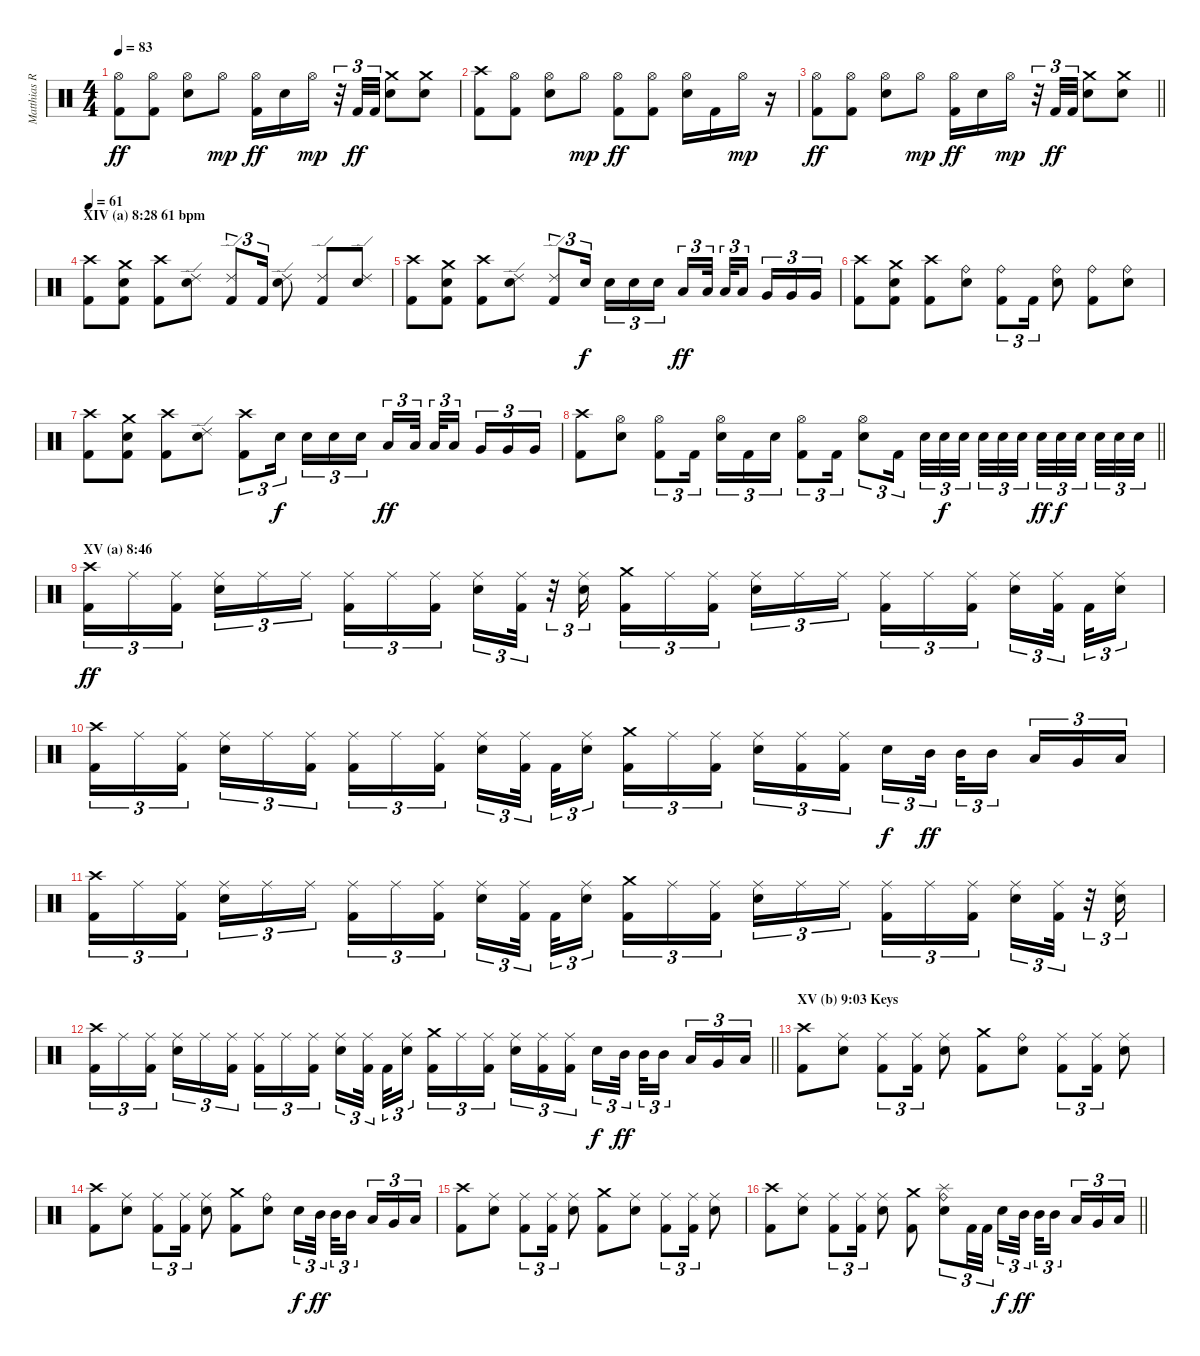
\track ("Matthias R." "Matthias R") {instrument percussion}
\staff {score}
\articulation defaults
\ts (4 4)
\tempo 83
\clef neutral
\ks c
("Hi-Hat (open)" "Kick (hit) 2").8{dy ff} ("Hi-Hat (open)" "Kick (hit) 2").8 ("Hi-Hat (open)" "Electric Snare (hit)").8 "Hi-Hat (open)".8{dy mp} ("Hi-Hat (open)" "Kick (hit) 2").16{dy ff} "Electric Snare (hit)".16 "Hi-Hat (open)".16{dy mp} r.32{tu (3 2)} "Kick (hit) 2".32{tu (3 2) dy ff} "Kick (hit) 2".32{tu (3 2)} ("Crash medium (hit)" "Electric Snare (hit)").8 ("Crash medium (hit)" "Electric Snare (hit)").8 |
("Crash high (hit)" "Kick (hit) 2").8 ("Hi-Hat (open)" "Kick (hit) 2").8 ("Hi-Hat (open)" "Electric Snare (hit)").8 "Hi-Hat (open)".8{dy mp} ("Hi-Hat (open)" "Kick (hit) 2").8{dy ff} ("Hi-Hat (open)" "Kick (hit) 2").8 ("Hi-Hat (open)" "Electric Snare (hit)").16 "Kick (hit) 2".16 "Hi-Hat (open)".16{dy mp} r.16 |
\barLineRight lightlight
("Hi-Hat (open)" "Kick (hit) 2").8{dy ff} ("Hi-Hat (open)" "Kick (hit) 2").8 ("Hi-Hat (open)" "Electric Snare (hit)").8 "Hi-Hat (open)".8{dy mp} ("Hi-Hat (open)" "Kick (hit) 2").16{dy ff} "Electric Snare (hit)".16 "Hi-Hat (open)".16{dy mp} r.32{tu (3 2)} "Kick (hit) 2".32{tu (3 2) dy ff} "Kick (hit) 2".32{tu (3 2)} ("Crash medium (hit)" "Electric Snare (hit)").8 ("Crash medium (hit)" "Electric Snare (hit)").8 |
\section ("" "XIV (a) 8:28 61 bpm")
\tempo 61
("Crash high (hit)" "Kick (hit) 2").8 ("Crash medium (hit)" "Electric Snare (hit)" "Kick (hit) 2").8 ("Crash high (hit)" "Kick (hit) 2").8 ("Ride (edge) 2" "Electric Snare (hit)").8 ("Ride (edge) 2" "Kick (hit) 2").8{tu (3 2)} "Kick (hit) 2".16{tu (3 2)} ("Ride (edge) 2" "Electric Snare (hit)").8 ("Ride (edge) 2" "Kick (hit) 2").8 ("Ride (edge) 2" "Electric Snare (hit)").8 |
("Crash high (hit)" "Kick (hit) 2").8 ("Crash medium (hit)" "Electric Snare (hit)" "Kick (hit) 2").8 ("Crash high (hit)" "Kick (hit) 2").8 ("Ride (edge) 2" "Electric Snare (hit)").8 ("Ride (edge) 2" "Kick (hit) 2").8{tu (3 2)} "Electric Snare (hit)".16{tu (3 2) dy f beam splitsecondary} "Electric Snare (hit)".16{tu (3 2)} "Electric Snare (hit)".16{tu (3 2)} "Electric Snare (hit)".16{tu (3 2)} "Low Tom (hit)".16{tu (3 2) dy ff} "Low Tom (hit)".32{tu (3 2) beam splitsecondary} "Low Tom (hit)".32{tu (3 2)} "Low Tom (hit)".16{tu (3 2) beam splitsecondary} "Very Low Tom (hit)".16{tu (3 2)} "Very Low Tom (hit)".16{tu (3 2)} "Very Low Tom (hit)".16{tu (3 2)} |
("Crash high (hit)" "Kick (hit) 2").8 ("Crash medium (hit)" "Electric Snare (hit)" "Kick (hit) 2").8 ("Crash high (hit)" "Kick (hit) 2").8 ("Ride (bell)" "Electric Snare (hit)").8 ("Ride (bell)" "Kick (hit) 2").8{tu (3 2)} "Kick (hit) 2".16{tu (3 2)} ("Ride (bell)" "Electric Snare (hit)").8 ("Ride (bell)" "Kick (hit) 2").8 ("Ride (bell)" "Electric Snare (hit)").8 |
("Crash high (hit)" "Kick (hit) 2").8 ("Crash medium (hit)" "Electric Snare (hit)" "Kick (hit) 2").8 ("Crash high (hit)" "Kick (hit) 2").8 ("Ride (edge) 2" "Electric Snare (hit)").8 ("Crash high (hit)" "Kick (hit) 2").8{tu (3 2)} "Electric Snare (hit)".16{tu (3 2) dy f beam splitsecondary} "Electric Snare (hit)".16{tu (3 2)} "Electric Snare (hit)".16{tu (3 2)} "Electric Snare (hit)".16{tu (3 2)} "Low Tom (hit)".16{tu (3 2) dy ff} "Low Tom (hit)".32{tu (3 2) beam splitsecondary} "Low Tom (hit)".32{tu (3 2)} "Low Tom (hit)".16{tu (3 2) beam splitsecondary} "Very Low Tom (hit)".16{tu (3 2)} "Very Low Tom (hit)".16{tu (3 2)} "Very Low Tom (hit)".16{tu (3 2)} |
\barLineRight lightlight
("Crash high (hit)" "Kick (hit) 2").8 ("Hi-Hat (open)" "Electric Snare (hit)").8 ("Hi-Hat (open)" "Kick (hit) 2").8{tu (3 2)} "Kick (hit) 2".16{tu (3 2) beam splitsecondary} ("Hi-Hat (open)" "Electric Snare (hit)").16{tu (3 2)} "Kick (hit) 2".16{tu (3 2)} "Electric Snare (hit)".16{tu (3 2)} ("Hi-Hat (open)" "Kick (hit) 2").8{tu (3 2)} "Kick (hit) 2".16{tu (3 2)} ("Hi-Hat (open)" "Electric Snare (hit)").8{tu (3 2)} "Kick (hit) 2".16{tu (3 2)} "Electric Snare (hit)".32{tu (3 2)} "Electric Snare (hit)".32{tu (3 2) dy f} "Electric Snare (hit)".32{tu (3 2) beam splitsecondary} "Electric Snare (hit)".32{tu (3 2)} "Electric Snare (hit)".32{tu (3 2)} "Electric Snare (hit)".32{tu (3 2) beam splitsecondary} "Electric Snare (hit)".32{tu (3 2) dy ff} "Electric Snare (hit)".32{tu (3 2) dy f} "Electric Snare (hit)".32{tu (3 2) beam splitsecondary} "Electric Snare (hit)".32{tu (3 2)} "Electric Snare (hit)".32{tu (3 2)} "Electric Snare (hit)".32{tu (3 2)} |
\section ("" "XV (a) 8:46")
("Crash high (hit)" "Kick (hit) 2").16{tu (3 2) dy ff} "Ride (middle)".16{tu (3 2)} ("Ride (middle)" "Kick (hit) 2").16{tu (3 2) beam splitsecondary} ("Ride (middle)" "Electric Snare (hit)").16{tu (3 2)} "Ride (middle)".16{tu (3 2)} "Ride (middle)".16{tu (3 2)} ("Ride (middle)" "Kick (hit) 2").16{tu (3 2)} "Ride (middle)".16{tu (3 2)} ("Ride (middle)" "Kick (hit) 2").16{tu (3 2) beam splitsecondary} ("Ride (middle)" "Electric Snare (hit)").16{tu (3 2)} ("Ride (middle)" "Kick (hit) 2").32{tu (3 2)} r.32{tu (3 2)} ("Ride (middle)" "Electric Snare (hit)").16{tu (3 2)} ("Crash medium (hit)" "Kick (hit) 2").16{tu (3 2)} "Ride (middle)".16{tu (3 2)} ("Ride (middle)" "Kick (hit) 2").16{tu (3 2) beam splitsecondary} ("Ride (middle)" "Electric Snare (hit)").16{tu (3 2)} "Ride (middle)".16{tu (3 2)} "Ride (middle)".16{tu (3 2)} ("Ride (middle)" "Kick (hit) 2").16{tu (3 2)} "Ride (middle)".16{tu (3 2)} ("Ride (middle)" "Kick (hit) 2").16{tu (3 2) beam splitsecondary} ("Ride (middle)" "Electric Snare (hit)").16{tu (3 2)} ("Ride (middle)" "Kick (hit) 2").32{tu (3 2) beam splitsecondary} "Kick (hit) 2".32{tu (3 2)} ("Ride (middle)" "Electric Snare (hit)").16{tu (3 2)} |
("Crash high (hit)" "Kick (hit) 2").16{tu (3 2)} "Ride (middle)".16{tu (3 2)} ("Ride (middle)" "Kick (hit) 2").16{tu (3 2) beam splitsecondary} ("Ride (middle)" "Electric Snare (hit)").16{tu (3 2)} "Ride (middle)".16{tu (3 2)} ("Ride (middle)" "Kick (hit) 2").16{tu (3 2)} ("Ride (middle)" "Kick (hit) 2").16{tu (3 2)} "Ride (middle)".16{tu (3 2)} ("Ride (middle)" "Kick (hit) 2").16{tu (3 2) beam splitsecondary} ("Ride (middle)" "Electric Snare (hit)").16{tu (3 2)} ("Ride (middle)" "Kick (hit) 2").32{tu (3 2) beam splitsecondary} "Kick (hit) 2".32{tu (3 2)} ("Ride (middle)" "Electric Snare (hit)").16{tu (3 2)} ("Crash medium (hit)" "Kick (hit) 2").16{tu (3 2)} "Ride (middle)".16{tu (3 2)} ("Ride (middle)" "Kick (hit) 2").16{tu (3 2) beam splitsecondary} ("Ride (middle)" "Electric Snare (hit)").16{tu (3 2)} ("Ride (middle)" "Kick (hit) 2").16{tu (3 2)} ("Ride (middle)" "Kick (hit) 2").16{tu (3 2)} "Electric Snare (hit)".16{tu (3 2) dy f} "Mid Tom (hit)".32{tu (3 2) dy ff beam splitsecondary} "Mid Tom (hit)".32{tu (3 2)} "Mid Tom (hit)".16{tu (3 2) beam splitsecondary} "Low Tom (hit)".16{tu (3 2)} "Very Low Tom (hit)".16{tu (3 2)} "Low Tom (hit)".16{tu (3 2)} |
("Crash high (hit)" "Kick (hit) 2").16{tu (3 2)} "Ride (middle)".16{tu (3 2)} ("Ride (middle)" "Kick (hit) 2").16{tu (3 2) beam splitsecondary} ("Ride (middle)" "Electric Snare (hit)").16{tu (3 2)} "Ride (middle)".16{tu (3 2)} "Ride (middle)".16{tu (3 2)} ("Ride (middle)" "Kick (hit) 2").16{tu (3 2)} "Ride (middle)".16{tu (3 2)} ("Ride (middle)" "Kick (hit) 2").16{tu (3 2) beam splitsecondary} ("Ride (middle)" "Electric Snare (hit)").16{tu (3 2)} ("Ride (middle)" "Kick (hit) 2").32{tu (3 2) beam splitsecondary} "Kick (hit) 2".32{tu (3 2)} ("Ride (middle)" "Electric Snare (hit)").16{tu (3 2)} ("Crash medium (hit)" "Kick (hit) 2").16{tu (3 2)} "Ride (middle)".16{tu (3 2)} ("Ride (middle)" "Kick (hit) 2").16{tu (3 2) beam splitsecondary} ("Ride (middle)" "Electric Snare (hit)").16{tu (3 2)} "Ride (middle)".16{tu (3 2)} "Ride (middle)".16{tu (3 2)} ("Ride (middle)" "Kick (hit) 2").16{tu (3 2)} "Ride (middle)".16{tu (3 2)} ("Ride (middle)" "Kick (hit) 2").16{tu (3 2) beam splitsecondary} ("Ride (middle)" "Electric Snare (hit)").16{tu (3 2)} ("Ride (middle)" "Kick (hit) 2").32{tu (3 2)} r.32{tu (3 2)} ("Ride (middle)" "Electric Snare (hit)").16{tu (3 2)} |
\barLineRight lightlight
("Crash high (hit)" "Kick (hit) 2").16{tu (3 2)} "Ride (middle)".16{tu (3 2)} ("Ride (middle)" "Kick (hit) 2").16{tu (3 2) beam splitsecondary} ("Ride (middle)" "Electric Snare (hit)").16{tu (3 2)} "Ride (middle)".16{tu (3 2)} ("Ride (middle)" "Kick (hit) 2").16{tu (3 2)} ("Ride (middle)" "Kick (hit) 2").16{tu (3 2)} "Ride (middle)".16{tu (3 2)} ("Ride (middle)" "Kick (hit) 2").16{tu (3 2) beam splitsecondary} ("Ride (middle)" "Electric Snare (hit)").16{tu (3 2)} ("Ride (middle)" "Kick (hit) 2").32{tu (3 2) beam splitsecondary} "Kick (hit) 2".32{tu (3 2)} ("Ride (middle)" "Electric Snare (hit)").16{tu (3 2)} ("Crash medium (hit)" "Kick (hit) 2").16{tu (3 2)} "Ride (middle)".16{tu (3 2)} ("Ride (middle)" "Kick (hit) 2").16{tu (3 2) beam splitsecondary} ("Ride (middle)" "Electric Snare (hit)").16{tu (3 2)} ("Ride (middle)" "Kick (hit) 2").16{tu (3 2)} ("Ride (middle)" "Kick (hit) 2").16{tu (3 2)} "Electric Snare (hit)".16{tu (3 2) dy f} "Mid Tom (hit)".32{tu (3 2) dy ff beam splitsecondary} "Mid Tom (hit)".32{tu (3 2)} "Mid Tom (hit)".16{tu (3 2) beam splitsecondary} "Low Tom (hit)".16{tu (3 2)} "Very Low Tom (hit)".16{tu (3 2)} "Low Tom (hit)".16{tu (3 2)} |
\section ("" "XV (b) 9:03 Keys")
("Crash high (hit)" "Kick (hit) 2").8 ("Ride (middle)" "Electric Snare (hit)").8 ("Ride (middle)" "Kick (hit) 2").8{tu (3 2)} ("Ride (middle)" "Kick (hit) 2").16{tu (3 2)} ("Ride (middle)" "Electric Snare (hit)").8 ("Crash medium (hit)" "Kick (hit) 2").8 ("Ride (bell)" "Electric Snare (hit)").8 ("Ride (middle)" "Kick (hit) 2").8{tu (3 2)} ("Ride (middle)" "Kick (hit) 2").16{tu (3 2)} ("Ride (middle)" "Electric Snare (hit)").8 |
("Crash high (hit)" "Kick (hit) 2").8 ("Ride (middle)" "Electric Snare (hit)").8 ("Ride (middle)" "Kick (hit) 2").8{tu (3 2)} ("Ride (middle)" "Kick (hit) 2").16{tu (3 2)} ("Ride (middle)" "Electric Snare (hit)").8 ("Crash medium (hit)" "Kick (hit) 2").8 ("Ride (bell)" "Electric Snare (hit)").8 "Electric Snare (hit)".16{tu (3 2) dy f} "Mid Tom (hit)".32{tu (3 2) dy ff beam splitsecondary} "Mid Tom (hit)".32{tu (3 2)} "Mid Tom (hit)".16{tu (3 2) beam splitsecondary} "Low Tom (hit)".16{tu (3 2)} "Very Low Tom (hit)".16{tu (3 2)} "Low Tom (hit)".16{tu (3 2)} |
("Crash high (hit)" "Kick (hit) 2").8 ("Ride (middle)" "Electric Snare (hit)").8 ("Ride (middle)" "Kick (hit) 2").8{tu (3 2)} ("Ride (middle)" "Kick (hit) 2").16{tu (3 2)} ("Ride (middle)" "Electric Snare (hit)").8 ("Crash medium (hit)" "Kick (hit) 2").8 ("Ride (middle)" "Electric Snare (hit)").8 ("Ride (middle)" "Kick (hit) 2").8{tu (3 2)} ("Ride (middle)" "Kick (hit) 2").16{tu (3 2)} ("Ride (middle)" "Electric Snare (hit)").8 |
\barLineRight lightlight
("Crash high (hit)" "Kick (hit) 2").8 ("Ride (middle)" "Electric Snare (hit)").8 ("Ride (middle)" "Kick (hit) 2").8{tu (3 2)} ("Ride (middle)" "Kick (hit) 2").16{tu (3 2)} ("Ride (middle)" "Electric Snare (hit)").8 ("Crash medium (hit)" "Kick (hit) 2").8 ("Splash (hit)" "Ride (bell)" "Electric Snare (hit)").8{tu (3 2)} "Kick (hit) 2".32{tu (3 2)} "Kick (hit) 2".32{tu (3 2)} "Electric Snare (hit)".16{tu (3 2) dy f} "Mid Tom (hit)".32{tu (3 2) dy ff beam splitsecondary} "Mid Tom (hit)".32{tu (3 2)} "Mid Tom (hit)".16{tu (3 2) beam splitsecondary} "Low Tom (hit)".16{tu (3 2)} "Very Low Tom (hit)".16{tu (3 2)} "Low Tom (hit)".16{tu (3 2)}
